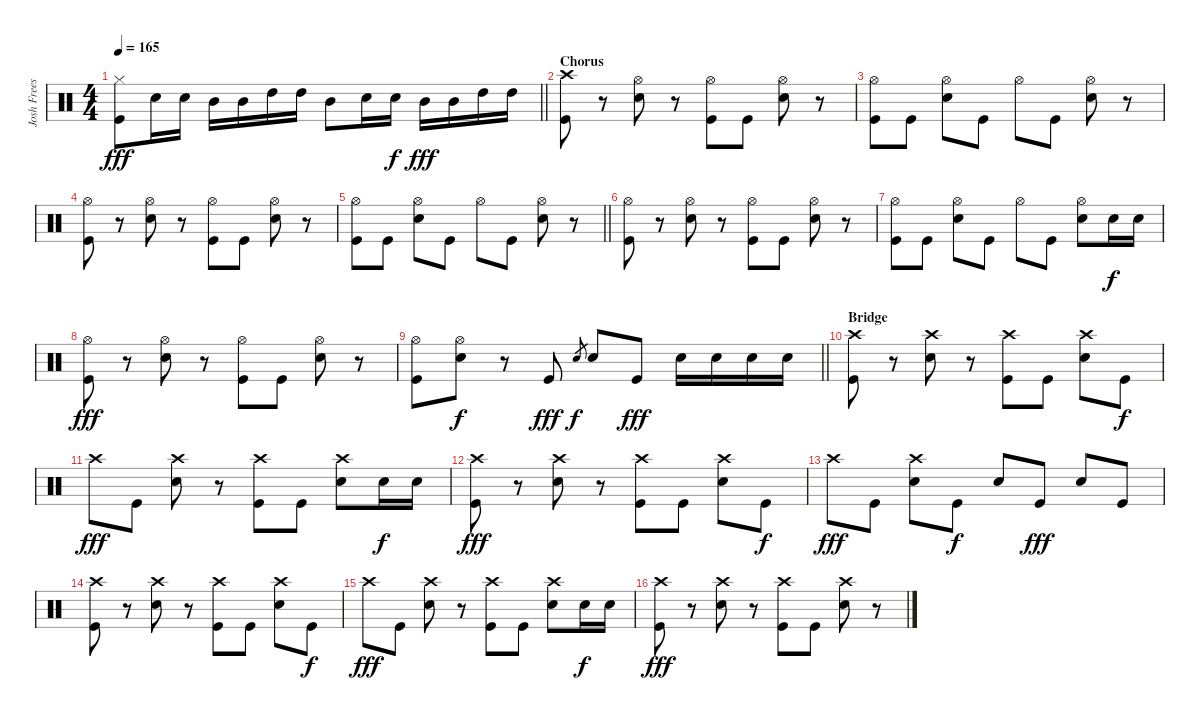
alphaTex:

\track ("Josh Freese" "Josh Frees") {instrument percussion}
\staff {score}
\articulation defaults
\ts (4 4)
\tempo 165
\clef neutral
\barLineRight lightlight
\ks c
("Hi-Hat (closed)" "Kick (hit)").8{dy fff} "Electric Snare (hit)".16 "Electric Snare (hit)".16 "Mid Tom (hit)".16 "Mid Tom (hit)".16 "High Tom (hit)".16 "High Tom (hit)".16 "Mid Tom (hit)".8 "Electric Snare (hit)".16 "Electric Snare (hit)".16{dy f} "Mid Tom (hit)".16{dy fff} "Mid Tom (hit)".16 "High Tom (hit)".16 "High Tom (hit)".16 |
\section ("" "Chorus")
("Crash high (hit)" "Kick (hit)").8 r.8 ("Hi-Hat (open)" "Electric Snare (hit)").8 r.8 ("Hi-Hat (open)" "Kick (hit)").8 "Kick (hit)".8 ("Hi-Hat (open)" "Electric Snare (hit)").8 r.8 |
("Hi-Hat (open)" "Kick (hit)").8 "Kick (hit)".8 ("Hi-Hat (open)" "Electric Snare (hit)").8 "Kick (hit)".8 "Hi-Hat (open)".8 "Kick (hit)".8 ("Hi-Hat (open)" "Electric Snare (hit)").8 r.8 |
("Hi-Hat (open)" "Kick (hit)").8 r.8 ("Hi-Hat (open)" "Electric Snare (hit)").8 r.8 ("Hi-Hat (open)" "Kick (hit)").8 "Kick (hit)".8 ("Hi-Hat (open)" "Electric Snare (hit)").8 r.8 |
\barLineRight lightlight
("Hi-Hat (open)" "Kick (hit)").8 "Kick (hit)".8 ("Hi-Hat (open)" "Electric Snare (hit)").8 "Kick (hit)".8 "Hi-Hat (open)".8 "Kick (hit)".8 ("Hi-Hat (open)" "Electric Snare (hit)").8 r.8 |
("Hi-Hat (open)" "Kick (hit)").8 r.8 ("Hi-Hat (open)" "Electric Snare (hit)").8 r.8 ("Hi-Hat (open)" "Kick (hit)").8 "Kick (hit)".8 ("Hi-Hat (open)" "Electric Snare (hit)").8 r.8 |
("Hi-Hat (open)" "Kick (hit)").8 "Kick (hit)".8 ("Hi-Hat (open)" "Electric Snare (hit)").8 "Kick (hit)".8 "Hi-Hat (open)".8 "Kick (hit)".8 ("Hi-Hat (open)" "Electric Snare (hit)").8 "Electric Snare (hit)".16{dy f} "Electric Snare (hit)".16 |
("Hi-Hat (open)" "Kick (hit)").8{dy fff} r.8 ("Hi-Hat (open)" "Electric Snare (hit)").8 r.8 ("Hi-Hat (open)" "Kick (hit)").8 "Kick (hit)".8 ("Hi-Hat (open)" "Electric Snare (hit)").8 r.8 |
\barLineRight lightlight
("Hi-Hat (open)" "Kick (hit)").8 ("Hi-Hat (open)" "Electric Snare (hit)").8{dy f} r.8 "Kick (hit)".8{dy fff} "Electric Snare (hit)".8{gr dy f} "Electric Snare (hit)".8 "Kick (hit)".8{dy fff} "Electric Snare (hit)".16 "Electric Snare (hit)".16 "Electric Snare (hit)".16 "Electric Snare (hit)".16 |
\section ("" "Bridge")
("Crash high (hit)" "Kick (hit)").8 r.8 ("Crash high (hit)" "Electric Snare (hit)").8 r.8 ("Crash high (hit)" "Kick (hit)").8 "Kick (hit)".8 ("Crash high (hit)" "Electric Snare (hit)").8 "Kick (hit)".8{dy f} |
"Crash high (hit)".8{dy fff} "Kick (hit)".8 ("Crash high (hit)" "Electric Snare (hit)").8 r.8 ("Crash high (hit)" "Kick (hit)").8 "Kick (hit)".8 ("Crash high (hit)" "Electric Snare (hit)").8 "Electric Snare (hit)".16{dy f} "Electric Snare (hit)".16 |
("Crash high (hit)" "Kick (hit)").8{dy fff} r.8 ("Crash high (hit)" "Electric Snare (hit)").8 r.8 ("Crash high (hit)" "Kick (hit)").8 "Kick (hit)".8 ("Crash high (hit)" "Electric Snare (hit)").8 "Kick (hit)".8{dy f} |
"Crash high (hit)".8{dy fff} "Kick (hit)".8 ("Crash high (hit)" "Electric Snare (hit)").8 "Kick (hit)".8{dy f} "Electric Snare (hit)".8 "Kick (hit)".8{dy fff} "Electric Snare (hit)".8 "Kick (hit)".8 |
("Crash high (hit)" "Kick (hit)").8 r.8 ("Crash high (hit)" "Electric Snare (hit)").8 r.8 ("Crash high (hit)" "Kick (hit)").8 "Kick (hit)".8 ("Crash high (hit)" "Electric Snare (hit)").8 "Kick (hit)".8{dy f} |
"Crash high (hit)".8{dy fff} "Kick (hit)".8 ("Crash high (hit)" "Electric Snare (hit)").8 r.8 ("Crash high (hit)" "Kick (hit)").8 "Kick (hit)".8 ("Crash high (hit)" "Electric Snare (hit)").8 "Electric Snare (hit)".16{dy f} "Electric Snare (hit)".16 |
("Crash high (hit)" "Kick (hit)").8{dy fff} r.8 ("Crash high (hit)" "Electric Snare (hit)").8 r.8 ("Crash high (hit)" "Kick (hit)").8 "Kick (hit)".8 ("Crash high (hit)" "Electric Snare (hit)").8 r.8
